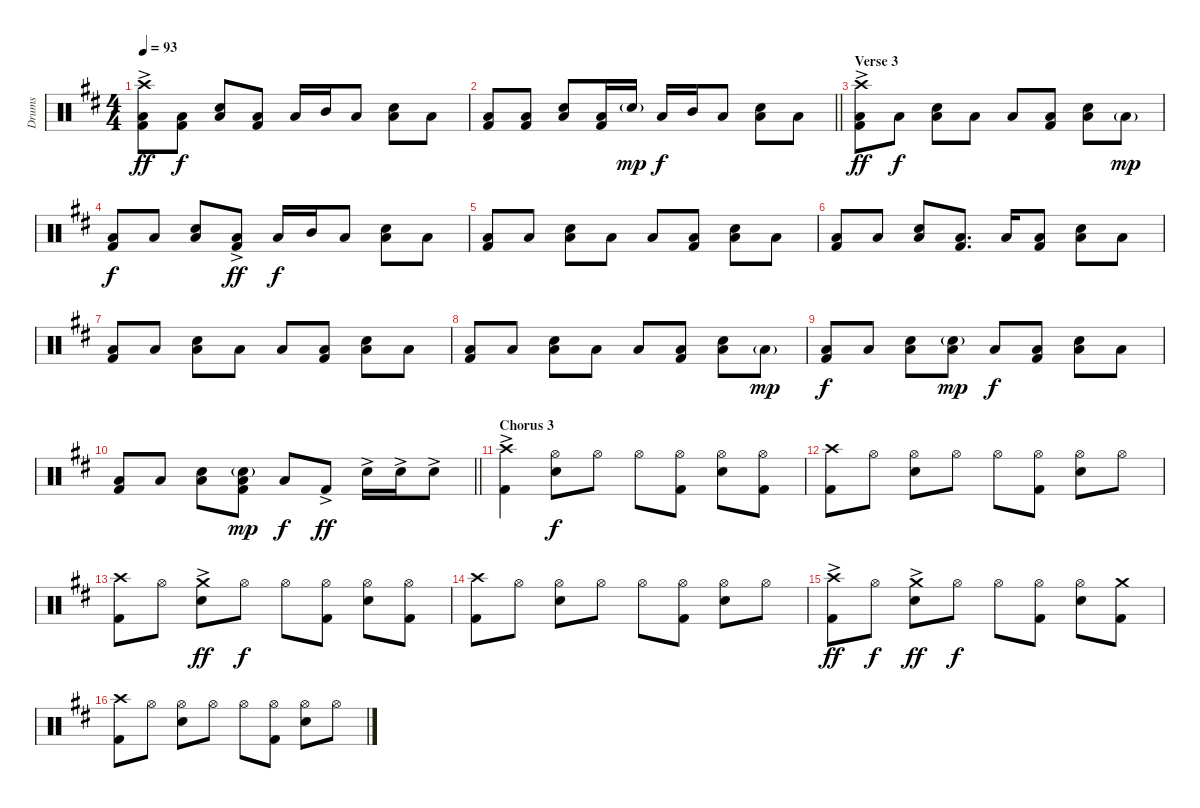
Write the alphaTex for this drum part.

\track ("Drums" "Drums") {instrument percussion}
\staff {score}
\articulation defaults
\ts (4 4)
\tempo 93
\clef neutral
\ks d
("Crash high (hit)"{ac} "Low Tom (hit)" "Kick (hit) 2").8{dy ff} ("Low Tom (hit)" "Kick (hit) 2").8{dy f} ("Electric Snare (hit)" "Low Tom (hit)").8 ("Low Tom (hit)" "Kick (hit) 2").8 "Low Tom (hit)".16 "Mid Tom (hit)".16 "Low Tom (hit)".8 ("Electric Snare (hit)" "Low Tom (hit)").8 "Low Tom (hit)".8 |
\barLineRight lightlight
("Low Tom (hit)" "Kick (hit) 2").8 ("Low Tom (hit)" "Kick (hit) 2").8 ("Electric Snare (hit)" "Low Tom (hit)").8 ("Low Tom (hit)" "Kick (hit) 2").16 "Electric Snare (hit)"{g}.16{dy mp} "Low Tom (hit)".16{dy f} "Mid Tom (hit)".16 "Low Tom (hit)".8 ("Electric Snare (hit)" "Low Tom (hit)").8 "Low Tom (hit)".8 |
\section ("" "Verse 3")
("Crash high (hit)"{ac} "Low Tom (hit)" "Kick (hit) 2").8{dy ff} "Low Tom (hit)".8{dy f} ("Electric Snare (hit)" "Low Tom (hit)").8 "Low Tom (hit)".8 "Low Tom (hit)".8 ("Low Tom (hit)" "Kick (hit) 2").8 ("Electric Snare (hit)" "Low Tom (hit)").8 "Low Tom (hit)"{g}.8{dy mp} |
("Low Tom (hit)" "Kick (hit) 2").8{dy f} "Low Tom (hit)".8 ("Electric Snare (hit)" "Low Tom (hit)").8 ("Low Tom (hit)"{ac} "Kick (hit) 2").8{dy ff} "Low Tom (hit)".16{dy f} "Mid Tom (hit)".16 "Low Tom (hit)".8 ("Electric Snare (hit)" "Low Tom (hit)").8 "Low Tom (hit)".8 |
("Low Tom (hit)" "Kick (hit) 2").8 "Low Tom (hit)".8 ("Electric Snare (hit)" "Low Tom (hit)").8 "Low Tom (hit)".8 "Low Tom (hit)".8 ("Low Tom (hit)" "Kick (hit) 2").8 ("Electric Snare (hit)" "Low Tom (hit)").8 "Low Tom (hit)".8 |
("Low Tom (hit)" "Kick (hit) 2").8 "Low Tom (hit)".8 ("Electric Snare (hit)" "Low Tom (hit)").8 ("Low Tom (hit)" "Kick (hit) 2").8{d} "Low Tom (hit)".16 ("Low Tom (hit)" "Kick (hit) 2").8 ("Electric Snare (hit)" "Low Tom (hit)").8 "Low Tom (hit)".8 |
("Low Tom (hit)" "Kick (hit) 2").8 "Low Tom (hit)".8 ("Electric Snare (hit)" "Low Tom (hit)").8 "Low Tom (hit)".8 "Low Tom (hit)".8 ("Low Tom (hit)" "Kick (hit) 2").8 ("Electric Snare (hit)" "Low Tom (hit)").8 "Low Tom (hit)".8 |
("Low Tom (hit)" "Kick (hit) 2").8 "Low Tom (hit)".8 ("Electric Snare (hit)" "Low Tom (hit)").8 "Low Tom (hit)".8 "Low Tom (hit)".8 ("Low Tom (hit)" "Kick (hit) 2").8 ("Electric Snare (hit)" "Low Tom (hit)").8 "Low Tom (hit)"{g}.8{dy mp} |
("Low Tom (hit)" "Kick (hit) 2").8{dy f} "Low Tom (hit)".8 ("Electric Snare (hit)" "Low Tom (hit)").8 ("Electric Snare (hit)"{g} "Low Tom (hit)").8{dy mp} "Low Tom (hit)".8{dy f} ("Low Tom (hit)" "Kick (hit) 2").8 ("Electric Snare (hit)" "Low Tom (hit)").8 "Low Tom (hit)".8 |
\barLineRight lightlight
("Low Tom (hit)" "Kick (hit) 2").8 "Low Tom (hit)".8 ("Electric Snare (hit)" "Low Tom (hit)").8 ("Electric Snare (hit)"{g} "Low Tom (hit)" "Kick (hit) 2").8{dy mp} "Low Tom (hit)".8{dy f} "Kick (hit) 2"{ac}.8{dy ff} "Electric Snare (hit)"{ac}.16 "Electric Snare (hit)"{ac}.16 "Electric Snare (hit)"{ac}.8 |
\section ("" "Chorus 3")
("Crash high (hit)"{ac} "Kick (hit) 2").4 ("Hi-Hat (open)" "Electric Snare (hit)").8{dy f} "Hi-Hat (open)".8 "Hi-Hat (open)".8 ("Hi-Hat (open)" "Kick (hit) 2").8 ("Hi-Hat (open)" "Electric Snare (hit)").8 ("Hi-Hat (open)" "Kick (hit) 2").8 |
("Crash high (hit)" "Kick (hit) 2").8 "Hi-Hat (open)".8 ("Hi-Hat (open)" "Electric Snare (hit)").8 "Hi-Hat (open)".8 "Hi-Hat (open)".8 ("Hi-Hat (open)" "Kick (hit) 2").8 ("Hi-Hat (open)" "Electric Snare (hit)").8 "Hi-Hat (open)".8 |
("Crash high (hit)" "Kick (hit) 2").8 "Hi-Hat (open)".8 ("Crash medium (hit)"{ac} "Electric Snare (hit)").8{dy ff} "Hi-Hat (open)".8{dy f} "Hi-Hat (open)".8 ("Hi-Hat (open)" "Kick (hit) 2").8 ("Hi-Hat (open)" "Electric Snare (hit)").8 ("Hi-Hat (open)" "Kick (hit) 2").8 |
("Crash high (hit)" "Kick (hit) 2").8 "Hi-Hat (open)".8 ("Hi-Hat (open)" "Electric Snare (hit)").8 "Hi-Hat (open)".8 "Hi-Hat (open)".8 ("Hi-Hat (open)" "Kick (hit) 2").8 ("Hi-Hat (open)" "Electric Snare (hit)").8 "Hi-Hat (open)".8 |
("Crash high (hit)"{ac} "Kick (hit) 2").8{dy ff} "Hi-Hat (open)".8{dy f} ("Crash medium (hit)"{ac} "Electric Snare (hit)").8{dy ff} "Hi-Hat (open)".8{dy f} "Hi-Hat (open)".8 ("Hi-Hat (open)" "Kick (hit) 2").8 ("Hi-Hat (open)" "Electric Snare (hit)").8 ("Crash medium (hit)" "Kick (hit) 2").8 |
("Crash high (hit)" "Kick (hit) 2").8 "Hi-Hat (open)".8 ("Hi-Hat (open)" "Electric Snare (hit)").8 "Hi-Hat (open)".8 "Hi-Hat (open)".8 ("Hi-Hat (open)" "Kick (hit) 2").8 ("Hi-Hat (open)" "Electric Snare (hit)").8 "Hi-Hat (open)".8
